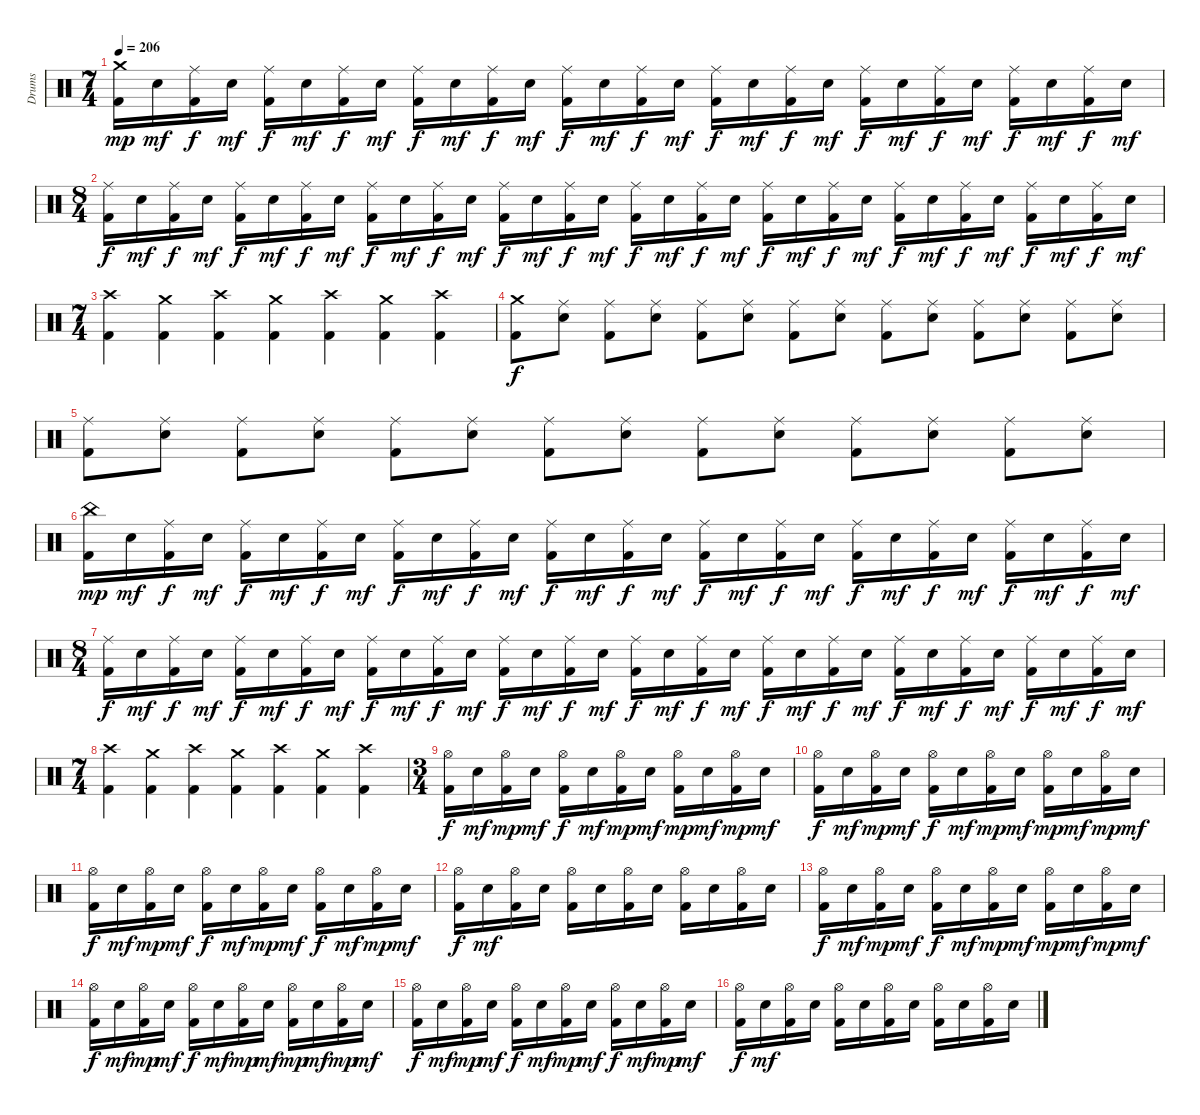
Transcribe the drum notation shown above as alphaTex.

\track ("Drums" "Drums") {instrument percussion}
\staff {score}
\articulation defaults
\ts (7 4)
\tempo 206
\clef neutral
\ks c
("Crash medium (hit)" "Kick (hit) 2").16{dy mp} "Electric Snare (hit)".16{dy mf} ("Ride (middle)" "Kick (hit) 2").16{dy f} "Electric Snare (hit)".16{dy mf} ("Ride (middle)" "Kick (hit) 2").16{dy f} "Electric Snare (hit)".16{dy mf} ("Ride (middle)" "Kick (hit) 2").16{dy f} "Electric Snare (hit)".16{dy mf} ("Ride (middle)" "Kick (hit) 2").16{dy f} "Electric Snare (hit)".16{dy mf} ("Ride (middle)" "Kick (hit) 2").16{dy f} "Electric Snare (hit)".16{dy mf} ("Ride (middle)" "Kick (hit) 2").16{dy f} "Electric Snare (hit)".16{dy mf} ("Ride (middle)" "Kick (hit) 2").16{dy f} "Electric Snare (hit)".16{dy mf} ("Ride (middle)" "Kick (hit) 2").16{dy f} "Electric Snare (hit)".16{dy mf} ("Ride (middle)" "Kick (hit) 2").16{dy f} "Electric Snare (hit)".16{dy mf} ("Ride (middle)" "Kick (hit) 2").16{dy f} "Electric Snare (hit)".16{dy mf} ("Ride (middle)" "Kick (hit) 2").16{dy f} "Electric Snare (hit)".16{dy mf} ("Ride (middle)" "Kick (hit) 2").16{dy f} "Electric Snare (hit)".16{dy mf} ("Ride (middle)" "Kick (hit) 2").16{dy f} "Electric Snare (hit)".16{dy mf} |
\ts (8 4)
("Ride (middle)" "Kick (hit) 2").16{dy f} "Electric Snare (hit)".16{dy mf} ("Ride (middle)" "Kick (hit) 2").16{dy f} "Electric Snare (hit)".16{dy mf} ("Ride (middle)" "Kick (hit) 2").16{dy f} "Electric Snare (hit)".16{dy mf} ("Ride (middle)" "Kick (hit) 2").16{dy f} "Electric Snare (hit)".16{dy mf} ("Ride (middle)" "Kick (hit) 2").16{dy f} "Electric Snare (hit)".16{dy mf} ("Ride (middle)" "Kick (hit) 2").16{dy f} "Electric Snare (hit)".16{dy mf} ("Ride (middle)" "Kick (hit) 2").16{dy f} "Electric Snare (hit)".16{dy mf} ("Ride (middle)" "Kick (hit) 2").16{dy f} "Electric Snare (hit)".16{dy mf} ("Ride (middle)" "Kick (hit) 2").16{dy f} "Electric Snare (hit)".16{dy mf} ("Ride (middle)" "Kick (hit) 2").16{dy f} "Electric Snare (hit)".16{dy mf} ("Ride (middle)" "Kick (hit) 2").16{dy f} "Electric Snare (hit)".16{dy mf} ("Ride (middle)" "Kick (hit) 2").16{dy f} "Electric Snare (hit)".16{dy mf} ("Ride (middle)" "Kick (hit) 2").16{dy f} "Electric Snare (hit)".16{dy mf} ("Ride (middle)" "Kick (hit) 2").16{dy f} "Electric Snare (hit)".16{dy mf} ("Ride (middle)" "Kick (hit) 2").16{dy f} "Electric Snare (hit)".16{dy mf} ("Ride (middle)" "Kick (hit) 2").16{dy f} "Electric Snare (hit)".16{dy mf} |
\ts (7 4)
("Crash high (hit)" "Kick (hit) 2").4 ("Crash medium (hit)" "Kick (hit) 2").4 ("Crash high (hit)" "Kick (hit) 2").4 ("Crash medium (hit)" "Kick (hit) 2").4 ("Crash high (hit)" "Kick (hit) 2").4 ("Crash medium (hit)" "Kick (hit) 2").4 ("Crash high (hit)" "Kick (hit) 2").4 |
("Crash medium (hit)" "Kick (hit) 2").8{dy f} ("Ride (middle)" "Electric Snare (hit)").8 ("Ride (middle)" "Kick (hit) 2").8 ("Ride (middle)" "Electric Snare (hit)").8 ("Ride (middle)" "Kick (hit) 2").8 ("Ride (middle)" "Electric Snare (hit)").8 ("Ride (middle)" "Kick (hit) 2").8 ("Ride (middle)" "Electric Snare (hit)").8 ("Ride (middle)" "Kick (hit) 2").8 ("Ride (middle)" "Electric Snare (hit)").8 ("Ride (middle)" "Kick (hit) 2").8 ("Ride (middle)" "Electric Snare (hit)").8 ("Ride (middle)" "Kick (hit) 2").8 ("Ride (middle)" "Electric Snare (hit)").8 |
("Ride (middle)" "Kick (hit) 2").8 ("Ride (middle)" "Electric Snare (hit)").8 ("Ride (middle)" "Kick (hit) 2").8 ("Ride (middle)" "Electric Snare (hit)").8 ("Ride (middle)" "Kick (hit) 2").8 ("Ride (middle)" "Electric Snare (hit)").8 ("Ride (middle)" "Kick (hit) 2").8 ("Ride (middle)" "Electric Snare (hit)").8 ("Ride (middle)" "Kick (hit) 2").8 ("Ride (middle)" "Electric Snare (hit)").8 ("Ride (middle)" "Kick (hit) 2").8 ("Ride (middle)" "Electric Snare (hit)").8 ("Ride (middle)" "Kick (hit) 2").8 ("Ride (middle)" "Electric Snare (hit)").8 |
("China (hit)" "Kick (hit) 2").16{dy mp} "Electric Snare (hit)".16{dy mf} ("Ride (middle)" "Kick (hit) 2").16{dy f} "Electric Snare (hit)".16{dy mf} ("Ride (middle)" "Kick (hit) 2").16{dy f} "Electric Snare (hit)".16{dy mf} ("Ride (middle)" "Kick (hit) 2").16{dy f} "Electric Snare (hit)".16{dy mf} ("Ride (middle)" "Kick (hit) 2").16{dy f} "Electric Snare (hit)".16{dy mf} ("Ride (middle)" "Kick (hit) 2").16{dy f} "Electric Snare (hit)".16{dy mf} ("Ride (middle)" "Kick (hit) 2").16{dy f} "Electric Snare (hit)".16{dy mf} ("Ride (middle)" "Kick (hit) 2").16{dy f} "Electric Snare (hit)".16{dy mf} ("Ride (middle)" "Kick (hit) 2").16{dy f} "Electric Snare (hit)".16{dy mf} ("Ride (middle)" "Kick (hit) 2").16{dy f} "Electric Snare (hit)".16{dy mf} ("Ride (middle)" "Kick (hit) 2").16{dy f} "Electric Snare (hit)".16{dy mf} ("Ride (middle)" "Kick (hit) 2").16{dy f} "Electric Snare (hit)".16{dy mf} ("Ride (middle)" "Kick (hit) 2").16{dy f} "Electric Snare (hit)".16{dy mf} ("Ride (middle)" "Kick (hit) 2").16{dy f} "Electric Snare (hit)".16{dy mf} |
\ts (8 4)
("Ride (middle)" "Kick (hit) 2").16{dy f} "Electric Snare (hit)".16{dy mf} ("Ride (middle)" "Kick (hit) 2").16{dy f} "Electric Snare (hit)".16{dy mf} ("Ride (middle)" "Kick (hit) 2").16{dy f} "Electric Snare (hit)".16{dy mf} ("Ride (middle)" "Kick (hit) 2").16{dy f} "Electric Snare (hit)".16{dy mf} ("Ride (middle)" "Kick (hit) 2").16{dy f} "Electric Snare (hit)".16{dy mf} ("Ride (middle)" "Kick (hit) 2").16{dy f} "Electric Snare (hit)".16{dy mf} ("Ride (middle)" "Kick (hit) 2").16{dy f} "Electric Snare (hit)".16{dy mf} ("Ride (middle)" "Kick (hit) 2").16{dy f} "Electric Snare (hit)".16{dy mf} ("Ride (middle)" "Kick (hit) 2").16{dy f} "Electric Snare (hit)".16{dy mf} ("Ride (middle)" "Kick (hit) 2").16{dy f} "Electric Snare (hit)".16{dy mf} ("Ride (middle)" "Kick (hit) 2").16{dy f} "Electric Snare (hit)".16{dy mf} ("Ride (middle)" "Kick (hit) 2").16{dy f} "Electric Snare (hit)".16{dy mf} ("Ride (middle)" "Kick (hit) 2").16{dy f} "Electric Snare (hit)".16{dy mf} ("Ride (middle)" "Kick (hit) 2").16{dy f} "Electric Snare (hit)".16{dy mf} ("Ride (middle)" "Kick (hit) 2").16{dy f} "Electric Snare (hit)".16{dy mf} ("Ride (middle)" "Kick (hit) 2").16{dy f} "Electric Snare (hit)".16{dy mf} |
\ts (7 4)
("Crash high (hit)" "Kick (hit) 2").4 ("Crash medium (hit)" "Kick (hit) 2").4 ("Crash high (hit)" "Kick (hit) 2").4 ("Crash medium (hit)" "Kick (hit) 2").4 ("Crash high (hit)" "Kick (hit) 2").4 ("Crash medium (hit)" "Kick (hit) 2").4 ("Crash high (hit)" "Kick (hit) 2").4 |
\ts (3 4)
("Hi-Hat (open)" "Kick (hit) 2").16{dy f} "Electric Snare (hit)".16{dy mf} ("Hi-Hat (open)" "Kick (hit) 2").16{dy mp} "Electric Snare (hit)".16{dy mf} ("Hi-Hat (open)" "Kick (hit) 2").16{dy f} "Electric Snare (hit)".16{dy mf} ("Hi-Hat (open)" "Kick (hit) 2").16{dy mp} "Electric Snare (hit)".16{dy mf} ("Hi-Hat (open)" "Kick (hit) 2").16{dy mp} "Electric Snare (hit)".16{dy mf} ("Hi-Hat (open)" "Kick (hit) 2").16{dy mp} "Electric Snare (hit)".16{dy mf} |
("Hi-Hat (open)" "Kick (hit) 2").16{dy f} "Electric Snare (hit)".16{dy mf} ("Hi-Hat (open)" "Kick (hit) 2").16{dy mp} "Electric Snare (hit)".16{dy mf} ("Hi-Hat (open)" "Kick (hit) 2").16{dy f} "Electric Snare (hit)".16{dy mf} ("Hi-Hat (open)" "Kick (hit) 2").16{dy mp} "Electric Snare (hit)".16{dy mf} ("Hi-Hat (open)" "Kick (hit) 2").16{dy mp} "Electric Snare (hit)".16{dy mf} ("Hi-Hat (open)" "Kick (hit) 2").16{dy mp} "Electric Snare (hit)".16{dy mf} |
("Hi-Hat (open)" "Kick (hit) 2").16{dy f} "Electric Snare (hit)".16{dy mf} ("Hi-Hat (open)" "Kick (hit) 2").16{dy mp} "Electric Snare (hit)".16{dy mf} ("Hi-Hat (open)" "Kick (hit) 2").16{dy f} "Electric Snare (hit)".16{dy mf} ("Hi-Hat (open)" "Kick (hit) 2").16{dy mp} "Electric Snare (hit)".16{dy mf} ("Hi-Hat (open)" "Kick (hit) 2").16{dy f} "Electric Snare (hit)".16{dy mf} ("Hi-Hat (open)" "Kick (hit) 2").16{dy mp} "Electric Snare (hit)".16{dy mf} |
("Hi-Hat (open)" "Kick (hit) 2").16{dy f} "Electric Snare (hit)".16{dy mf} ("Hi-Hat (open)" "Kick (hit) 2").16 "Electric Snare (hit)".16 ("Hi-Hat (open)" "Kick (hit) 2").16 "Electric Snare (hit)".16 ("Hi-Hat (open)" "Kick (hit) 2").16 "Electric Snare (hit)".16 ("Hi-Hat (open)" "Kick (hit) 2").16 "Electric Snare (hit)".16 ("Hi-Hat (open)" "Kick (hit) 2").16 "Electric Snare (hit)".16 |
("Hi-Hat (open)" "Kick (hit) 2").16{dy f} "Electric Snare (hit)".16{dy mf} ("Hi-Hat (open)" "Kick (hit) 2").16{dy mp} "Electric Snare (hit)".16{dy mf} ("Hi-Hat (open)" "Kick (hit) 2").16{dy f} "Electric Snare (hit)".16{dy mf} ("Hi-Hat (open)" "Kick (hit) 2").16{dy mp} "Electric Snare (hit)".16{dy mf} ("Hi-Hat (open)" "Kick (hit) 2").16{dy mp} "Electric Snare (hit)".16{dy mf} ("Hi-Hat (open)" "Kick (hit) 2").16{dy mp} "Electric Snare (hit)".16{dy mf} |
("Hi-Hat (open)" "Kick (hit) 2").16{dy f} "Electric Snare (hit)".16{dy mf} ("Hi-Hat (open)" "Kick (hit) 2").16{dy mp} "Electric Snare (hit)".16{dy mf} ("Hi-Hat (open)" "Kick (hit) 2").16{dy f} "Electric Snare (hit)".16{dy mf} ("Hi-Hat (open)" "Kick (hit) 2").16{dy mp} "Electric Snare (hit)".16{dy mf} ("Hi-Hat (open)" "Kick (hit) 2").16{dy mp} "Electric Snare (hit)".16{dy mf} ("Hi-Hat (open)" "Kick (hit) 2").16{dy mp} "Electric Snare (hit)".16{dy mf} |
("Hi-Hat (open)" "Kick (hit) 2").16{dy f} "Electric Snare (hit)".16{dy mf} ("Hi-Hat (open)" "Kick (hit) 2").16{dy mp} "Electric Snare (hit)".16{dy mf} ("Hi-Hat (open)" "Kick (hit) 2").16{dy f} "Electric Snare (hit)".16{dy mf} ("Hi-Hat (open)" "Kick (hit) 2").16{dy mp} "Electric Snare (hit)".16{dy mf} ("Hi-Hat (open)" "Kick (hit) 2").16{dy f} "Electric Snare (hit)".16{dy mf} ("Hi-Hat (open)" "Kick (hit) 2").16{dy mp} "Electric Snare (hit)".16{dy mf} |
("Hi-Hat (open)" "Kick (hit) 2").16{dy f} "Electric Snare (hit)".16{dy mf} ("Hi-Hat (open)" "Kick (hit) 2").16 "Electric Snare (hit)".16 ("Hi-Hat (open)" "Kick (hit) 2").16 "Electric Snare (hit)".16 ("Hi-Hat (open)" "Kick (hit) 2").16 "Electric Snare (hit)".16 ("Hi-Hat (open)" "Kick (hit) 2").16 "Electric Snare (hit)".16 ("Hi-Hat (open)" "Kick (hit) 2").16 "Electric Snare (hit)".16
